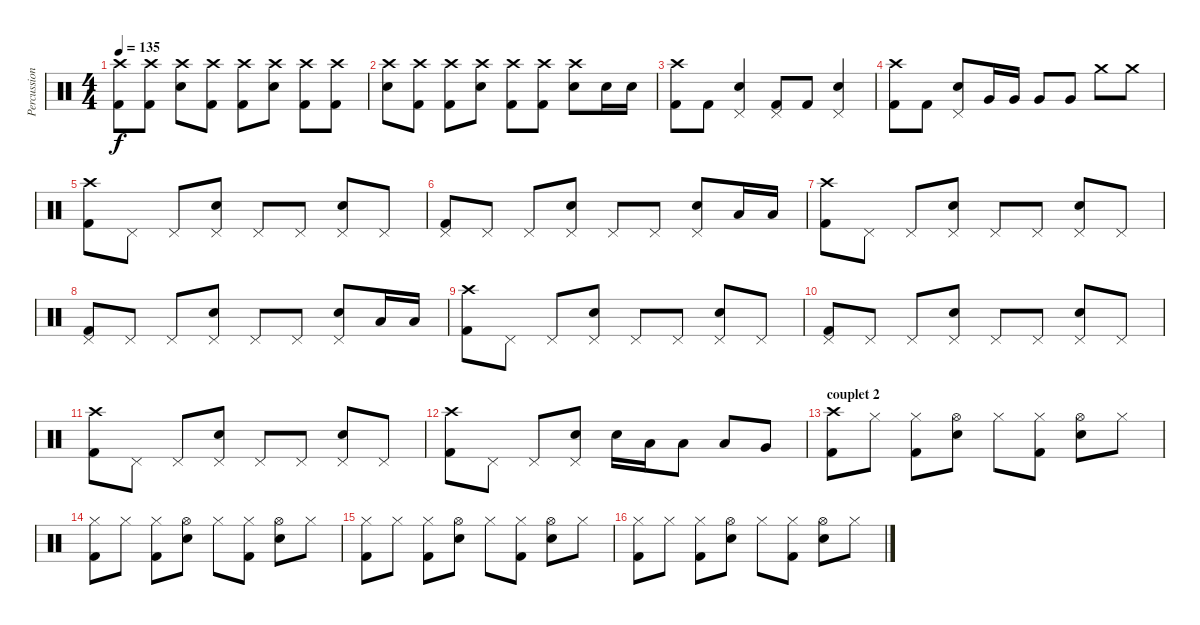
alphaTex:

\track ("Percussions" "Percussion") {instrument percussion}
\staff {score}
\articulation defaults
\ts (4 4)
\tempo 135
\clef neutral
\ks c
("Crash high (hit)" "Kick (hit) 2").8{dy f} ("Crash high (hit)" "Kick (hit) 2").8 ("Crash high (hit)" "Snare (hit) 2").8 ("Crash high (hit)" "Kick (hit) 2").8 ("Crash high (hit)" "Kick (hit) 2").8 ("Crash high (hit)" "Snare (hit) 2").8 ("Crash high (hit)" "Kick (hit) 2").8 ("Crash high (hit)" "Kick (hit) 2").8 |
("Crash high (hit)" "Snare (hit) 2").8 ("Crash high (hit)" "Kick (hit) 2").8 ("Crash high (hit)" "Kick (hit) 2").8 ("Crash high (hit)" "Snare (hit) 2").8 ("Crash high (hit)" "Kick (hit) 2").8 ("Crash high (hit)" "Kick (hit) 2").8 ("Crash high (hit)" "Snare (hit) 2").8 "Snare (hit) 2".16 "Snare (hit) 2".16 |
("Crash high (hit)" "Kick (hit) 2").8 "Kick (hit) 2".8 ("Pedal Hi-Hat (hit)" "Snare (hit) 2").4 ("Pedal Hi-Hat (hit)" "Kick (hit) 2").8 "Kick (hit) 2".8 ("Pedal Hi-Hat (hit)" "Snare (hit) 2").4 |
("Crash high (hit)" "Kick (hit) 2").8 "Kick (hit) 2".8 ("Pedal Hi-Hat (hit)" "Snare (hit) 2").8 "Very Low Tom (hit)".16 "Very Low Tom (hit)".16 "Very Low Tom (hit)".8 "Very Low Tom (hit)".8 "Crash medium (hit)".8 "Crash medium (hit)".8 |
("Crash high (hit)" "Kick (hit) 2").8 "Pedal Hi-Hat (hit)".8 "Pedal Hi-Hat (hit)".8 ("Pedal Hi-Hat (hit)" "Snare (hit) 2").8 "Pedal Hi-Hat (hit)".8 "Pedal Hi-Hat (hit)".8 ("Pedal Hi-Hat (hit)" "Snare (hit) 2").8 "Pedal Hi-Hat (hit)".8 |
("Pedal Hi-Hat (hit)" "Kick (hit) 2").8 "Pedal Hi-Hat (hit)".8 "Pedal Hi-Hat (hit)".8 ("Pedal Hi-Hat (hit)" "Snare (hit) 2").8 "Pedal Hi-Hat (hit)".8 "Pedal Hi-Hat (hit)".8 ("Pedal Hi-Hat (hit)" "Snare (hit) 2").8 "Low Tom (hit)".16 "Low Tom (hit)".16 |
("Crash high (hit)" "Kick (hit) 2").8 "Pedal Hi-Hat (hit)".8 "Pedal Hi-Hat (hit)".8 ("Pedal Hi-Hat (hit)" "Snare (hit) 2").8 "Pedal Hi-Hat (hit)".8 "Pedal Hi-Hat (hit)".8 ("Pedal Hi-Hat (hit)" "Snare (hit) 2").8 "Pedal Hi-Hat (hit)".8 |
("Pedal Hi-Hat (hit)" "Kick (hit) 2").8 "Pedal Hi-Hat (hit)".8 "Pedal Hi-Hat (hit)".8 ("Pedal Hi-Hat (hit)" "Snare (hit) 2").8 "Pedal Hi-Hat (hit)".8 "Pedal Hi-Hat (hit)".8 ("Pedal Hi-Hat (hit)" "Snare (hit) 2").8 "Low Tom (hit)".16 "Low Tom (hit)".16 |
("Crash high (hit)" "Kick (hit) 2").8 "Pedal Hi-Hat (hit)".8 "Pedal Hi-Hat (hit)".8 ("Pedal Hi-Hat (hit)" "Snare (hit) 2").8 "Pedal Hi-Hat (hit)".8 "Pedal Hi-Hat (hit)".8 ("Pedal Hi-Hat (hit)" "Snare (hit) 2").8 "Pedal Hi-Hat (hit)".8 |
("Pedal Hi-Hat (hit)" "Kick (hit) 2").8 "Pedal Hi-Hat (hit)".8 "Pedal Hi-Hat (hit)".8 ("Pedal Hi-Hat (hit)" "Snare (hit) 2").8 "Pedal Hi-Hat (hit)".8 "Pedal Hi-Hat (hit)".8 ("Pedal Hi-Hat (hit)" "Snare (hit) 2").8 "Pedal Hi-Hat (hit)".8 |
("Crash high (hit)" "Kick (hit) 2").8 "Pedal Hi-Hat (hit)".8 "Pedal Hi-Hat (hit)".8 ("Pedal Hi-Hat (hit)" "Snare (hit) 2").8 "Pedal Hi-Hat (hit)".8 "Pedal Hi-Hat (hit)".8 ("Pedal Hi-Hat (hit)" "Snare (hit) 2").8 "Pedal Hi-Hat (hit)".8 |
("Crash high (hit)" "Kick (hit) 2").8 "Pedal Hi-Hat (hit)".8 "Pedal Hi-Hat (hit)".8 ("Pedal Hi-Hat (hit)" "Snare (hit) 2").8 "Snare (hit) 2".16 "Low Tom (hit)".16 "Low Tom (hit)".8 "Low Tom (hit)".8 "Very Low Tom (hit)".8 |
\section ("" "couplet 2")
("Crash high (hit)" "Kick (hit) 2").8 "Hi-Hat (closed)".8 ("Hi-Hat (closed)" "Kick (hit) 2").8 ("Hi-Hat (open)" "Snare (hit) 2").8 "Hi-Hat (closed)".8 ("Hi-Hat (closed)" "Kick (hit) 2").8 ("Hi-Hat (open)" "Snare (hit) 2").8 "Hi-Hat (closed)".8 |
("Hi-Hat (closed)" "Kick (hit) 2").8 "Hi-Hat (closed)".8 ("Hi-Hat (closed)" "Kick (hit) 2").8 ("Hi-Hat (open)" "Snare (hit) 2").8 "Hi-Hat (closed)".8 ("Hi-Hat (closed)" "Kick (hit) 2").8 ("Hi-Hat (open)" "Snare (hit) 2").8 "Hi-Hat (closed)".8 |
("Hi-Hat (closed)" "Kick (hit) 2").8 "Hi-Hat (closed)".8 ("Hi-Hat (closed)" "Kick (hit) 2").8 ("Hi-Hat (open)" "Snare (hit) 2").8 "Hi-Hat (closed)".8 ("Hi-Hat (closed)" "Kick (hit) 2").8 ("Hi-Hat (open)" "Snare (hit) 2").8 "Hi-Hat (closed)".8 |
("Hi-Hat (closed)" "Kick (hit) 2").8 "Hi-Hat (closed)".8 ("Hi-Hat (closed)" "Kick (hit) 2").8 ("Hi-Hat (open)" "Snare (hit) 2").8 "Hi-Hat (closed)".8 ("Hi-Hat (closed)" "Kick (hit) 2").8 ("Hi-Hat (open)" "Snare (hit) 2").8 "Hi-Hat (closed)".8
